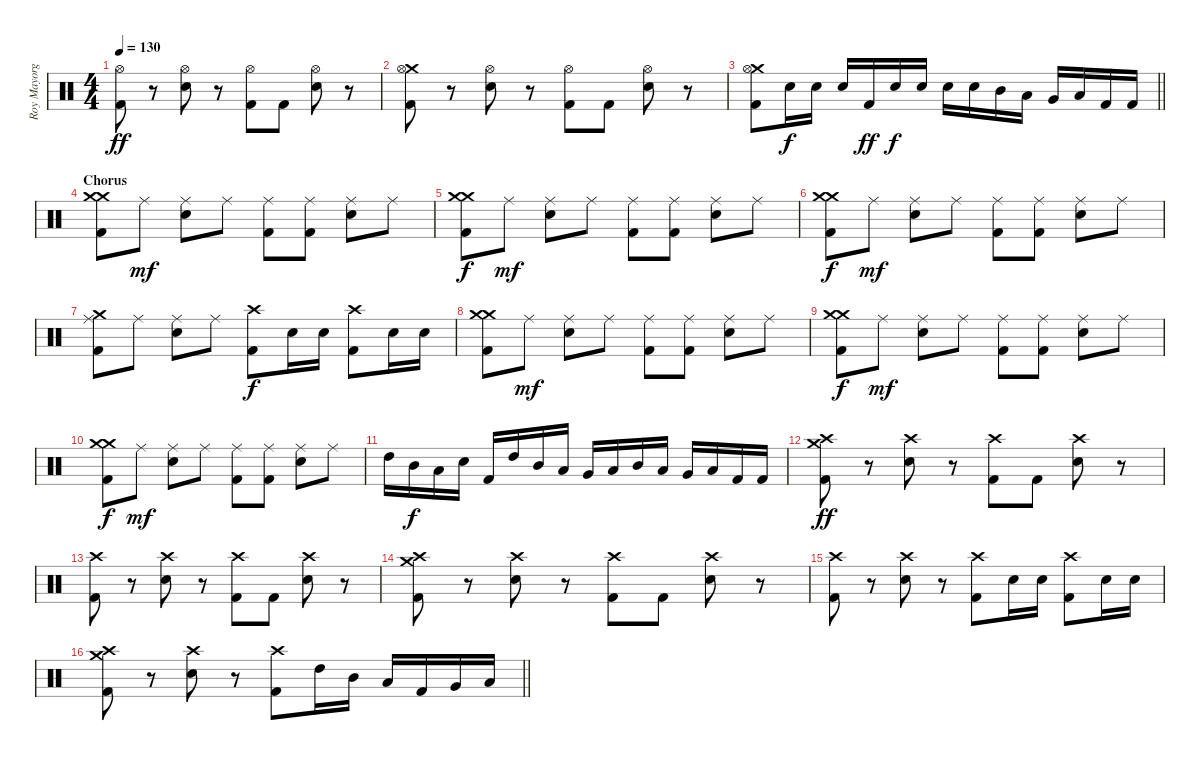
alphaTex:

\track ("Roy Mayorga (Drums)" "Roy Mayorg") {instrument percussion}
\staff {score}
\articulation defaults
\ts (4 4)
\tempo 130
\clef neutral
\ks c
("Hi-Hat (open)" "Kick (hit) 2").8{dy ff} r.8 ("Hi-Hat (open)" "Electric Snare (hit)").8 r.8 ("Hi-Hat (open)" "Kick (hit) 2").8 "Kick (hit) 2".8 ("Hi-Hat (open)" "Electric Snare (hit)").8 r.8 |
("Crash medium (hit)" "Hi-Hat (open)" "Kick (hit) 2").8 r.8 ("Hi-Hat (open)" "Electric Snare (hit)").8 r.8 ("Hi-Hat (open)" "Kick (hit) 2").8 "Kick (hit) 2".8 ("Hi-Hat (open)" "Electric Snare (hit)").8 r.8 |
\barLineRight lightlight
("Crash medium (hit)" "Hi-Hat (open)" "Kick (hit) 2").8 "Electric Snare (hit)".16{dy f} "Electric Snare (hit)".16 "Electric Snare (hit)".16 "Kick (hit) 2".16{dy ff} "Electric Snare (hit)".16{dy f} "Electric Snare (hit)".16 "Electric Snare (hit)".16 "Electric Snare (hit)".16 "Mid Tom (hit)".16 "Low Tom (hit)".16 "Very Low Tom (hit)".16 "Low Floor Tom (hit)".16 "Kick (hit) 2".16 "Kick (hit) 2".16 |
\section ("" "Chorus")
("Crash medium (hit)" "Crash medium (hit)" "Kick (hit) 2").8 "Ride (middle)".8{dy mf} ("Ride (middle)" "Electric Snare (hit)").8 "Ride (middle)".8 ("Ride (middle)" "Kick (hit) 2").8 ("Ride (middle)" "Kick (hit) 2").8 ("Ride (middle)" "Electric Snare (hit)").8 "Ride (middle)".8 |
("Crash medium (hit)" "Crash medium (hit)" "Kick (hit) 2").8{dy f} "Ride (middle)".8{dy mf} ("Ride (middle)" "Electric Snare (hit)").8 "Ride (middle)".8 ("Ride (middle)" "Kick (hit) 2").8 ("Ride (middle)" "Kick (hit) 2").8 ("Ride (middle)" "Electric Snare (hit)").8 "Ride (middle)".8 |
("Crash medium (hit)" "Crash medium (hit)" "Kick (hit) 2").8{dy f} "Ride (middle)".8{dy mf} ("Ride (middle)" "Electric Snare (hit)").8 "Ride (middle)".8 ("Ride (middle)" "Kick (hit) 2").8 ("Ride (middle)" "Kick (hit) 2").8 ("Ride (middle)" "Electric Snare (hit)").8 "Ride (middle)".8 |
("Crash medium (hit)" "Ride (middle)" "Kick (hit) 2").8 "Ride (middle)".8 ("Ride (middle)" "Electric Snare (hit)").8 "Ride (middle)".8 ("Crash high (hit)" "Kick (hit) 2").8{dy f} "Electric Snare (hit)".16 "Electric Snare (hit)".16 ("Crash high (hit)" "Kick (hit) 2").8 "Electric Snare (hit)".16 "Electric Snare (hit)".16 |
("Crash medium (hit)" "Crash medium (hit)" "Kick (hit) 2").8 "Ride (middle)".8{dy mf} ("Ride (middle)" "Electric Snare (hit)").8 "Ride (middle)".8 ("Ride (middle)" "Kick (hit) 2").8 ("Ride (middle)" "Kick (hit) 2").8 ("Ride (middle)" "Electric Snare (hit)").8 "Ride (middle)".8 |
("Crash medium (hit)" "Crash medium (hit)" "Kick (hit) 2").8{dy f} "Ride (middle)".8{dy mf} ("Ride (middle)" "Electric Snare (hit)").8 "Ride (middle)".8 ("Ride (middle)" "Kick (hit) 2").8 ("Ride (middle)" "Kick (hit) 2").8 ("Ride (middle)" "Electric Snare (hit)").8 "Ride (middle)".8 |
("Crash medium (hit)" "Crash medium (hit)" "Kick (hit) 2").8{dy f} "Ride (middle)".8{dy mf} ("Ride (middle)" "Electric Snare (hit)").8 "Ride (middle)".8 ("Ride (middle)" "Kick (hit) 2").8 ("Ride (middle)" "Kick (hit) 2").8 ("Ride (middle)" "Electric Snare (hit)").8 "Ride (middle)".8 |
"High Tom (hit)".16 "Mid Tom (hit)".16{dy f} "Low Tom (hit)".16 "Snare (hit) 2".16 "Kick (hit) 2".16 "High Tom (hit)".16 "Mid Tom (hit)".16 "Low Tom (hit)".16 "Very Low Tom (hit)".16 "Low Floor Tom (hit)".16 "Mid Tom (hit)".16 "Low Tom (hit)".16 "Very Low Tom (hit)".16 "Low Floor Tom (hit)".16 "Kick (hit) 2".16 "Kick (hit) 2".16 |
("Crash medium (hit)" "Crash high (hit)" "Kick (hit) 2").8{dy ff} r.8 ("Crash high (hit)" "Electric Snare (hit)").8 r.8 ("Crash high (hit)" "Kick (hit) 2").8 "Kick (hit) 2".8 ("Crash high (hit)" "Electric Snare (hit)").8 r.8 |
("Crash high (hit)" "Kick (hit) 2").8 r.8 ("Crash high (hit)" "Electric Snare (hit)").8 r.8 ("Crash high (hit)" "Kick (hit) 2").8 "Kick (hit) 2".8 ("Crash high (hit)" "Electric Snare (hit)").8 r.8 |
("Crash medium (hit)" "Crash high (hit)" "Kick (hit) 2").8 r.8 ("Crash high (hit)" "Electric Snare (hit)").8 r.8 ("Crash high (hit)" "Kick (hit) 2").8 "Kick (hit) 2".8 ("Crash high (hit)" "Electric Snare (hit)").8 r.8 |
("Crash high (hit)" "Kick (hit) 2").8 r.8 ("Crash high (hit)" "Electric Snare (hit)").8 r.8 ("Crash high (hit)" "Kick (hit) 2").8 "Electric Snare (hit)".16 "Electric Snare (hit)".16 ("Crash high (hit)" "Kick (hit) 2").8 "Electric Snare (hit)".16 "Electric Snare (hit)".16 |
\barLineRight lightlight
("Crash medium (hit)" "Crash high (hit)" "Kick (hit) 2").8 r.8 ("Crash high (hit)" "Electric Snare (hit)").8 r.8 ("Crash high (hit)" "Kick (hit) 2").8 "High Tom (hit)".16 "Mid Tom (hit)".16 "Low Tom (hit)".16 "Kick (hit) 2".16 "Very Low Tom (hit)".16 "Low Tom (hit)".16
